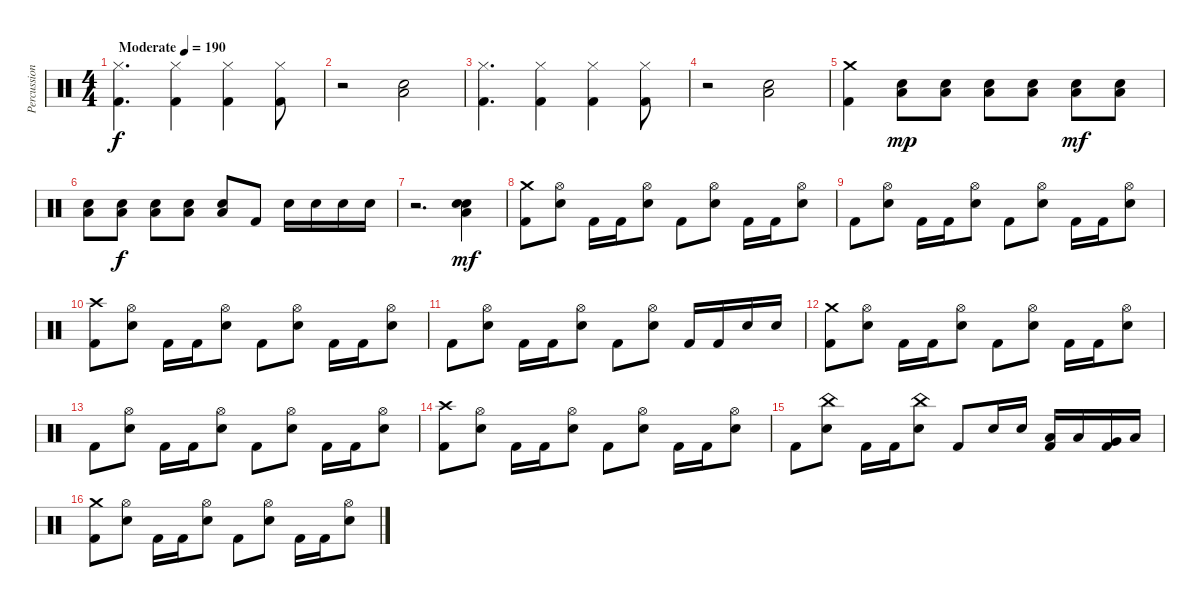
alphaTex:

\track ("Percussion" "Percussion") {instrument percussion}
\staff {score}
\articulation defaults
\ts (4 4)
\tempo (190 "Moderate")
\clef neutral
\ks c
("Hi-Hat (closed)" "Kick (hit) 2").4{d dy f} ("Hi-Hat (closed)" "Kick (hit) 2").4 ("Hi-Hat (closed)" "Kick (hit) 2").4 ("Hi-Hat (closed)" "Kick (hit) 2").8 |
r.2 ("Low Floor Tom (hit)" "Electric Snare (hit)").2 |
("Hi-Hat (closed)" "Kick (hit) 2").4{d} ("Hi-Hat (closed)" "Kick (hit) 2").4 ("Hi-Hat (closed)" "Kick (hit) 2").4 ("Hi-Hat (closed)" "Kick (hit) 2").8 |
r.2 ("Low Floor Tom (hit)" "Electric Snare (hit)").2 |
("Crash medium (hit)" "Kick (hit) 2").4 ("Low Floor Tom (hit)" "Electric Snare (hit)").8{dy mp} ("Low Floor Tom (hit)" "Electric Snare (hit)").8 ("Low Floor Tom (hit)" "Electric Snare (hit)").8 ("Low Floor Tom (hit)" "Electric Snare (hit)").8 ("Low Floor Tom (hit)" "Electric Snare (hit)").8{dy mf} ("Low Floor Tom (hit)" "Electric Snare (hit)").8 |
("Low Floor Tom (hit)" "Electric Snare (hit)").8 ("Low Floor Tom (hit)" "Electric Snare (hit)").8{dy f} ("Low Floor Tom (hit)" "Electric Snare (hit)").8 ("Low Floor Tom (hit)" "Electric Snare (hit)").8 ("Low Floor Tom (hit)" "Electric Snare (hit)").8 "Kick (hit) 2".8 "Electric Snare (hit)".16 "Electric Snare (hit)".16 "Electric Snare (hit)".16 "Electric Snare (hit)".16 |
r.2{d} ("Hand Clap (hit)" "Low Floor Tom (hit)" "Electric Snare (hit)").4{dy mf} |
("Crash medium (hit)" "Kick (hit) 2").8 ("Hi-Hat (open)" "Electric Snare (hit)").8 "Kick (hit) 2".16 "Kick (hit) 2".16 ("Hi-Hat (open)" "Electric Snare (hit)").8 "Kick (hit) 2".8 ("Hi-Hat (open)" "Electric Snare (hit)").8 "Kick (hit) 2".16 "Kick (hit) 2".16 ("Hi-Hat (open)" "Electric Snare (hit)").8 |
"Kick (hit) 2".8 ("Hi-Hat (open)" "Electric Snare (hit)").8 "Kick (hit) 2".16 "Kick (hit) 2".16 ("Hi-Hat (open)" "Electric Snare (hit)").8 "Kick (hit) 2".8 ("Hi-Hat (open)" "Electric Snare (hit)").8 "Kick (hit) 2".16 "Kick (hit) 2".16 ("Hi-Hat (open)" "Electric Snare (hit)").8 |
("Crash high (hit)" "Kick (hit) 2").8 ("Hi-Hat (open)" "Electric Snare (hit)").8 "Kick (hit) 2".16 "Kick (hit) 2".16 ("Hi-Hat (open)" "Electric Snare (hit)").8 "Kick (hit) 2".8 ("Hi-Hat (open)" "Electric Snare (hit)").8 "Kick (hit) 2".16 "Kick (hit) 2".16 ("Hi-Hat (open)" "Electric Snare (hit)").8 |
"Kick (hit) 2".8 ("Hi-Hat (open)" "Electric Snare (hit)").8 "Kick (hit) 2".16 "Kick (hit) 2".16 ("Hi-Hat (open)" "Electric Snare (hit)").8 "Kick (hit) 2".8 ("Hi-Hat (open)" "Electric Snare (hit)").8 "Kick (hit) 2".16 "Kick (hit) 2".16 "Electric Snare (hit)".16 "Electric Snare (hit)".16 |
("Crash medium (hit)" "Kick (hit) 2").8 ("Hi-Hat (open)" "Electric Snare (hit)").8 "Kick (hit) 2".16 "Kick (hit) 2".16 ("Hi-Hat (open)" "Electric Snare (hit)").8 "Kick (hit) 2".8 ("Hi-Hat (open)" "Electric Snare (hit)").8 "Kick (hit) 2".16 "Kick (hit) 2".16 ("Hi-Hat (open)" "Electric Snare (hit)").8 |
"Kick (hit) 2".8 ("Hi-Hat (open)" "Electric Snare (hit)").8 "Kick (hit) 2".16 "Kick (hit) 2".16 ("Hi-Hat (open)" "Electric Snare (hit)").8 "Kick (hit) 2".8 ("Hi-Hat (open)" "Electric Snare (hit)").8 "Kick (hit) 2".16 "Kick (hit) 2".16 ("Hi-Hat (open)" "Electric Snare (hit)").8 |
("Crash high (hit)" "Kick (hit) 2").8 ("Hi-Hat (open)" "Electric Snare (hit)").8 "Kick (hit) 2".16 "Kick (hit) 2".16 ("Hi-Hat (open)" "Electric Snare (hit)").8 "Kick (hit) 2".8 ("Hi-Hat (open)" "Electric Snare (hit)").8 "Kick (hit) 2".16 "Kick (hit) 2".16 ("Hi-Hat (open)" "Electric Snare (hit)").8 |
"Kick (hit) 2".8 ("China (hit)" "Electric Snare (hit)").8 "Kick (hit) 2".16 "Kick (hit) 2".16 ("China (hit)" "Electric Snare (hit)").8 "Kick (hit) 2".8 "Electric Snare (hit)".16 "Electric Snare (hit)".16 ("Low Tom (hit)" "Kick (hit) 2").16 "Low Tom (hit)".16 ("Very Low Tom (hit)" "Kick (hit) 2").16 "Low Floor Tom (hit)".16 |
("Crash medium (hit)" "Kick (hit) 2").8 ("Hi-Hat (open)" "Electric Snare (hit)").8 "Kick (hit) 2".16 "Kick (hit) 2".16 ("Hi-Hat (open)" "Electric Snare (hit)").8 "Kick (hit) 2".8 ("Hi-Hat (open)" "Electric Snare (hit)").8 "Kick (hit) 2".16 "Kick (hit) 2".16 ("Hi-Hat (open)" "Electric Snare (hit)").8
